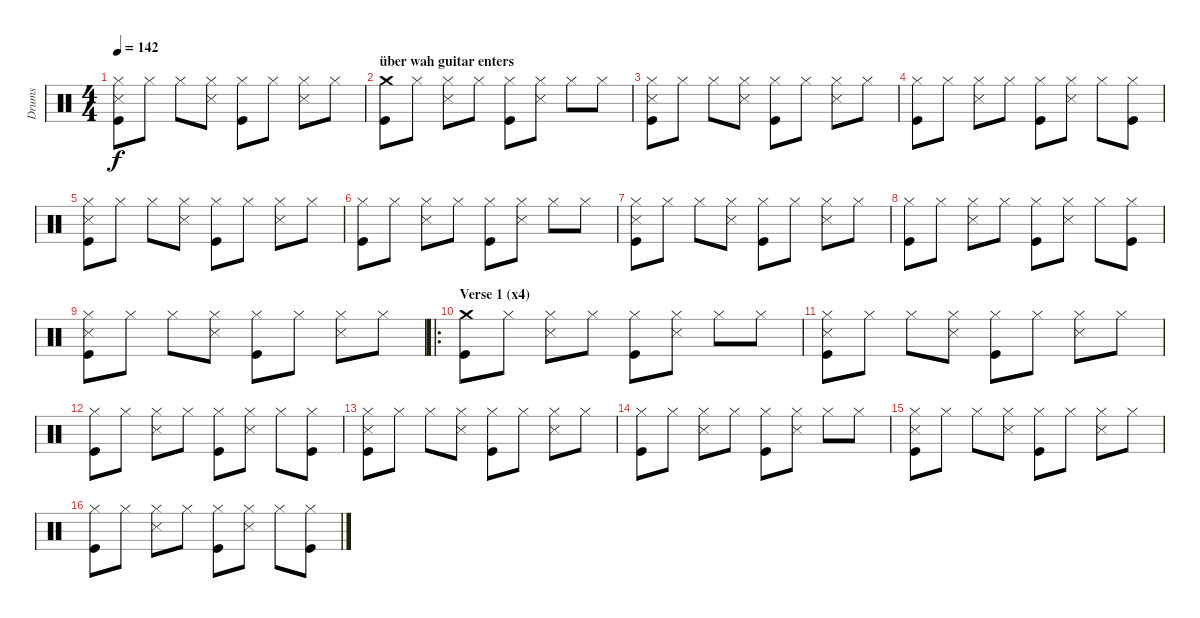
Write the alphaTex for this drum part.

\track ("Drums" "Drums") {instrument percussion}
\staff {score}
\articulation defaults
\ts (4 4)
\tempo 142
\clef neutral
\ks c
("Hi-Hat (closed)" "Snare (side stick) 3" "Kick (hit)").8{dy f} "Hi-Hat (closed)".8 "Hi-Hat (closed)".8 ("Hi-Hat (closed)" "Snare (side stick) 3").8 ("Hi-Hat (closed)" "Kick (hit)").8 "Hi-Hat (closed)".8 ("Hi-Hat (closed)" "Snare (side stick) 3").8 "Hi-Hat (closed)".8 |
\section ("" "über wah guitar enters")
("Crash medium (hit)" "Kick (hit)").8 "Hi-Hat (closed)".8 ("Hi-Hat (closed)" "Snare (side stick) 3").8 "Hi-Hat (closed)".8 ("Hi-Hat (closed)" "Kick (hit)").8 ("Hi-Hat (closed)" "Snare (side stick) 3").8 "Hi-Hat (closed)".8 "Hi-Hat (closed)".8 |
("Hi-Hat (closed)" "Snare (side stick) 3" "Kick (hit)").8 "Hi-Hat (closed)".8 "Hi-Hat (closed)".8 ("Hi-Hat (closed)" "Snare (side stick) 3").8 ("Hi-Hat (closed)" "Kick (hit)").8 "Hi-Hat (closed)".8 ("Hi-Hat (closed)" "Snare (side stick) 3").8 "Hi-Hat (closed)".8 |
("Hi-Hat (closed)" "Kick (hit)").8 "Hi-Hat (closed)".8 ("Hi-Hat (closed)" "Snare (side stick) 3").8 "Hi-Hat (closed)".8 ("Hi-Hat (closed)" "Kick (hit)").8 ("Hi-Hat (closed)" "Snare (side stick) 3").8 "Hi-Hat (closed)".8 ("Hi-Hat (closed)" "Kick (hit)").8 |
("Hi-Hat (closed)" "Snare (side stick) 3" "Kick (hit)").8 "Hi-Hat (closed)".8 "Hi-Hat (closed)".8 ("Hi-Hat (closed)" "Snare (side stick) 3").8 ("Hi-Hat (closed)" "Kick (hit)").8 "Hi-Hat (closed)".8 ("Hi-Hat (closed)" "Snare (side stick) 3").8 "Hi-Hat (closed)".8 |
("Hi-Hat (closed)" "Kick (hit)").8 "Hi-Hat (closed)".8 ("Hi-Hat (closed)" "Snare (side stick) 3").8 "Hi-Hat (closed)".8 ("Hi-Hat (closed)" "Kick (hit)").8 ("Hi-Hat (closed)" "Snare (side stick) 3").8 "Hi-Hat (closed)".8 "Hi-Hat (closed)".8 |
("Hi-Hat (closed)" "Snare (side stick) 3" "Kick (hit)").8 "Hi-Hat (closed)".8 "Hi-Hat (closed)".8 ("Hi-Hat (closed)" "Snare (side stick) 3").8 ("Hi-Hat (closed)" "Kick (hit)").8 "Hi-Hat (closed)".8 ("Hi-Hat (closed)" "Snare (side stick) 3").8 "Hi-Hat (closed)".8 |
("Hi-Hat (closed)" "Kick (hit)").8 "Hi-Hat (closed)".8 ("Hi-Hat (closed)" "Snare (side stick) 3").8 "Hi-Hat (closed)".8 ("Hi-Hat (closed)" "Kick (hit)").8 ("Hi-Hat (closed)" "Snare (side stick) 3").8 "Hi-Hat (closed)".8 ("Hi-Hat (closed)" "Kick (hit)").8 |
("Hi-Hat (closed)" "Snare (side stick) 3" "Kick (hit)").8 "Hi-Hat (closed)".8 "Hi-Hat (closed)".8 ("Hi-Hat (closed)" "Snare (side stick) 3").8 ("Hi-Hat (closed)" "Kick (hit)").8 "Hi-Hat (closed)".8 ("Hi-Hat (closed)" "Snare (side stick) 3").8 "Hi-Hat (closed)".8 |
\ro
\section ("" "Verse 1 (x4)")
("Crash medium (hit)" "Kick (hit)").8 "Hi-Hat (closed)".8 ("Hi-Hat (closed)" "Snare (side stick) 3").8 "Hi-Hat (closed)".8 ("Hi-Hat (closed)" "Kick (hit)").8 ("Hi-Hat (closed)" "Snare (side stick) 3").8 "Hi-Hat (closed)".8 "Hi-Hat (closed)".8 |
("Hi-Hat (closed)" "Snare (side stick) 3" "Kick (hit)").8 "Hi-Hat (closed)".8 "Hi-Hat (closed)".8 ("Hi-Hat (closed)" "Snare (side stick) 3").8 ("Hi-Hat (closed)" "Kick (hit)").8 "Hi-Hat (closed)".8 ("Hi-Hat (closed)" "Snare (side stick) 3").8 "Hi-Hat (closed)".8 |
("Hi-Hat (closed)" "Kick (hit)").8 "Hi-Hat (closed)".8 ("Hi-Hat (closed)" "Snare (side stick) 3").8 "Hi-Hat (closed)".8 ("Hi-Hat (closed)" "Kick (hit)").8 ("Hi-Hat (closed)" "Snare (side stick) 3").8 "Hi-Hat (closed)".8 ("Hi-Hat (closed)" "Kick (hit)").8 |
("Hi-Hat (closed)" "Snare (side stick) 3" "Kick (hit)").8 "Hi-Hat (closed)".8 "Hi-Hat (closed)".8 ("Hi-Hat (closed)" "Snare (side stick) 3").8 ("Hi-Hat (closed)" "Kick (hit)").8 "Hi-Hat (closed)".8 ("Hi-Hat (closed)" "Snare (side stick) 3").8 "Hi-Hat (closed)".8 |
("Hi-Hat (closed)" "Kick (hit)").8 "Hi-Hat (closed)".8 ("Hi-Hat (closed)" "Snare (side stick) 3").8 "Hi-Hat (closed)".8 ("Hi-Hat (closed)" "Kick (hit)").8 ("Hi-Hat (closed)" "Snare (side stick) 3").8 "Hi-Hat (closed)".8 "Hi-Hat (closed)".8 |
("Hi-Hat (closed)" "Snare (side stick) 3" "Kick (hit)").8 "Hi-Hat (closed)".8 "Hi-Hat (closed)".8 ("Hi-Hat (closed)" "Snare (side stick) 3").8 ("Hi-Hat (closed)" "Kick (hit)").8 "Hi-Hat (closed)".8 ("Hi-Hat (closed)" "Snare (side stick) 3").8 "Hi-Hat (closed)".8 |
("Hi-Hat (closed)" "Kick (hit)").8 "Hi-Hat (closed)".8 ("Hi-Hat (closed)" "Snare (side stick) 3").8 "Hi-Hat (closed)".8 ("Hi-Hat (closed)" "Kick (hit)").8 ("Hi-Hat (closed)" "Snare (side stick) 3").8 "Hi-Hat (closed)".8 ("Hi-Hat (closed)" "Kick (hit)").8
